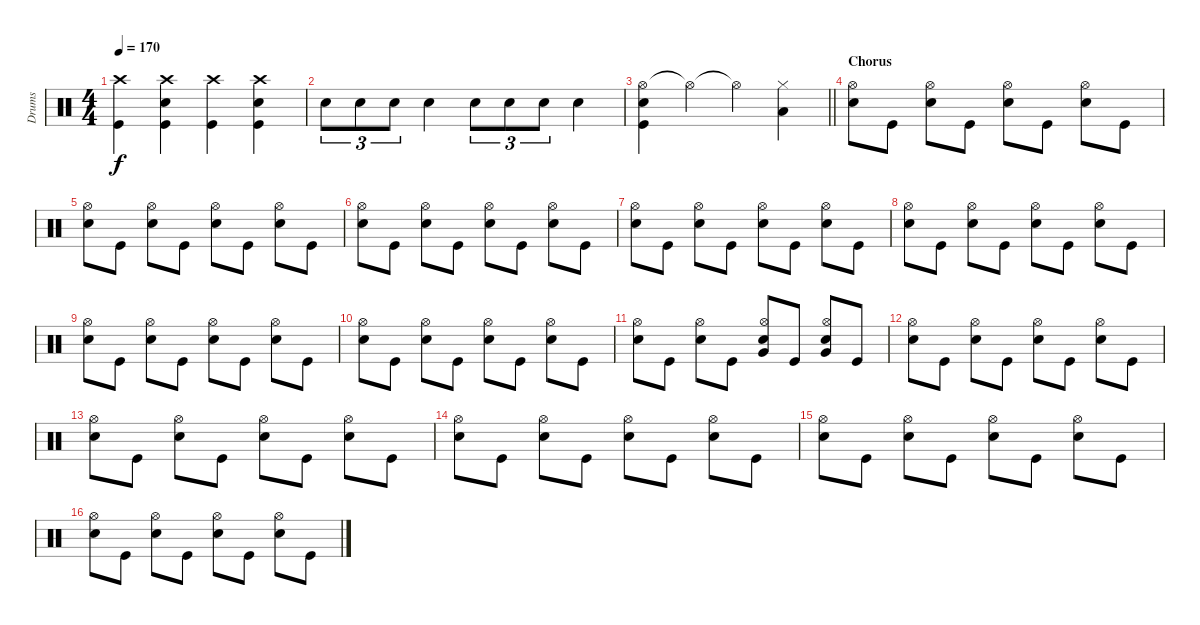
\track ("Drums" "Drums") {instrument percussion}
\staff {score}
\articulation defaults
\ts (4 4)
\tempo 170
\clef neutral
\ks c
("Crash high (hit)" "Kick (hit)").4{dy f} ("Crash high (hit)" "Snare (hit) 2" "Kick (hit)").4 ("Crash high (hit)" "Kick (hit)").4 ("Crash high (hit)" "Snare (hit) 2" "Kick (hit)").4 |
"Snare (hit) 2".8{tu (3 2)} "Snare (hit) 2".8{tu (3 2)} "Snare (hit) 2".8{tu (3 2)} "Snare (hit) 2".4 "Snare (hit) 2".8{tu (3 2)} "Snare (hit) 2".8{tu (3 2)} "Snare (hit) 2".8{tu (3 2)} "Snare (hit) 2".4 |
\barLineRight lightlight
("Hi-Hat (open)" "Snare (hit) 2" "Kick (hit)").4{volume 16} "Hi-Hat (open)"{t}.4 "Hi-Hat (open)"{t}.4 ("Hi-Hat (closed)" "Low Tom (hit)").4 |
\section ("" "Chorus")
("Hi-Hat (open)" "Snare (hit) 2").8{volume 13} "Kick (hit)".8 ("Hi-Hat (open)" "Snare (hit) 2").8 "Kick (hit)".8 ("Hi-Hat (open)" "Snare (hit) 2").8 "Kick (hit)".8 ("Hi-Hat (open)" "Snare (hit) 2").8 "Kick (hit)".8 |
("Hi-Hat (open)" "Snare (hit) 2").8 "Kick (hit)".8 ("Hi-Hat (open)" "Snare (hit) 2").8 "Kick (hit)".8 ("Hi-Hat (open)" "Snare (hit) 2").8 "Kick (hit)".8 ("Hi-Hat (open)" "Snare (hit) 2").8 "Kick (hit)".8 |
("Hi-Hat (open)" "Snare (hit) 2").8 "Kick (hit)".8 ("Hi-Hat (open)" "Snare (hit) 2").8 "Kick (hit)".8 ("Hi-Hat (open)" "Snare (hit) 2").8 "Kick (hit)".8 ("Hi-Hat (open)" "Snare (hit) 2").8 "Kick (hit)".8 |
("Hi-Hat (open)" "Snare (hit) 2").8 "Kick (hit)".8 ("Hi-Hat (open)" "Snare (hit) 2").8 "Kick (hit)".8 ("Hi-Hat (open)" "Snare (hit) 2").8 "Kick (hit)".8 ("Hi-Hat (open)" "Snare (hit) 2").8 "Kick (hit)".8 |
("Hi-Hat (open)" "Snare (hit) 2").8 "Kick (hit)".8 ("Hi-Hat (open)" "Snare (hit) 2").8 "Kick (hit)".8 ("Hi-Hat (open)" "Snare (hit) 2").8 "Kick (hit)".8 ("Hi-Hat (open)" "Snare (hit) 2").8 "Kick (hit)".8 |
("Hi-Hat (open)" "Snare (hit) 2").8 "Kick (hit)".8 ("Hi-Hat (open)" "Snare (hit) 2").8 "Kick (hit)".8 ("Hi-Hat (open)" "Snare (hit) 2").8 "Kick (hit)".8 ("Hi-Hat (open)" "Snare (hit) 2").8 "Kick (hit)".8 |
("Hi-Hat (open)" "Snare (hit) 2").8 "Kick (hit)".8 ("Hi-Hat (open)" "Snare (hit) 2").8 "Kick (hit)".8 ("Hi-Hat (open)" "Snare (hit) 2").8 "Kick (hit)".8 ("Hi-Hat (open)" "Snare (hit) 2").8 "Kick (hit)".8 |
("Hi-Hat (open)" "Snare (hit) 2").8 "Kick (hit)".8 ("Hi-Hat (open)" "Snare (hit) 2").8 "Kick (hit)".8 ("Hi-Hat (open)" "Snare (hit) 2" "Very Low Tom (hit)").8 "Kick (hit)".8 ("Hi-Hat (open)" "Snare (hit) 2" "Very Low Tom (hit)").8 "Kick (hit)".8 |
("Hi-Hat (open)" "Snare (hit) 2").8{volume 13} "Kick (hit)".8 ("Hi-Hat (open)" "Snare (hit) 2").8 "Kick (hit)".8 ("Hi-Hat (open)" "Snare (hit) 2").8 "Kick (hit)".8 ("Hi-Hat (open)" "Snare (hit) 2").8 "Kick (hit)".8 |
("Hi-Hat (open)" "Snare (hit) 2").8 "Kick (hit)".8 ("Hi-Hat (open)" "Snare (hit) 2").8 "Kick (hit)".8 ("Hi-Hat (open)" "Snare (hit) 2").8 "Kick (hit)".8 ("Hi-Hat (open)" "Snare (hit) 2").8 "Kick (hit)".8 |
("Hi-Hat (open)" "Snare (hit) 2").8 "Kick (hit)".8 ("Hi-Hat (open)" "Snare (hit) 2").8 "Kick (hit)".8 ("Hi-Hat (open)" "Snare (hit) 2").8 "Kick (hit)".8 ("Hi-Hat (open)" "Snare (hit) 2").8 "Kick (hit)".8 |
("Hi-Hat (open)" "Snare (hit) 2").8 "Kick (hit)".8 ("Hi-Hat (open)" "Snare (hit) 2").8 "Kick (hit)".8 ("Hi-Hat (open)" "Snare (hit) 2").8 "Kick (hit)".8 ("Hi-Hat (open)" "Snare (hit) 2").8 "Kick (hit)".8 |
("Hi-Hat (open)" "Snare (hit) 2").8 "Kick (hit)".8 ("Hi-Hat (open)" "Snare (hit) 2").8 "Kick (hit)".8 ("Hi-Hat (open)" "Snare (hit) 2").8 "Kick (hit)".8 ("Hi-Hat (open)" "Snare (hit) 2").8 "Kick (hit)".8
